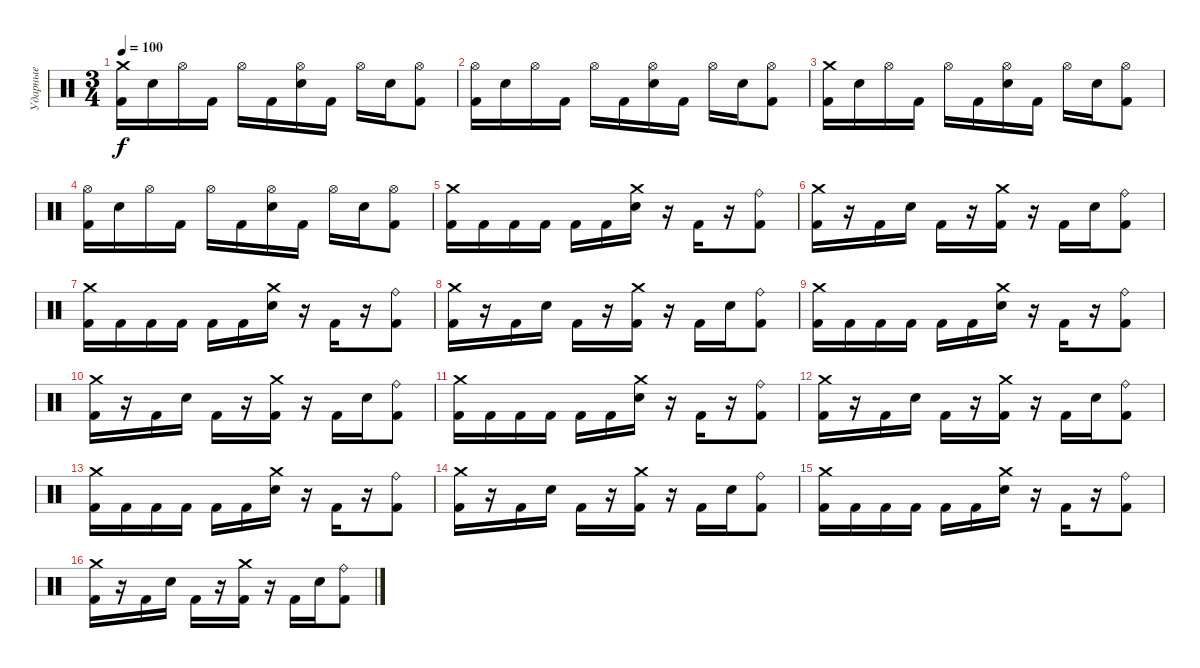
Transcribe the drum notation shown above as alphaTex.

\track ("Ударные" "Ударные") {instrument percussion}
\staff {score}
\articulation defaults
\ts (3 4)
\tempo 100
\clef neutral
\ks c
("Crash medium (hit)" "Kick (hit) 2").16{dy f} "Electric Snare (hit)".16 "Hi-Hat (open)".16 "Kick (hit) 2".16 "Hi-Hat (open)".16 "Kick (hit) 2".16 ("Hi-Hat (open)" "Electric Snare (hit)").16 "Kick (hit) 2".16 "Hi-Hat (open)".16 "Electric Snare (hit)".16 ("Hi-Hat (open)" "Kick (hit) 2").8 |
("Hi-Hat (open)" "Kick (hit) 2").16 "Electric Snare (hit)".16 "Hi-Hat (open)".16 "Kick (hit) 2".16 "Hi-Hat (open)".16 "Kick (hit) 2".16 ("Hi-Hat (open)" "Electric Snare (hit)").16 "Kick (hit) 2".16 "Hi-Hat (open)".16 "Electric Snare (hit)".16 ("Hi-Hat (open)" "Kick (hit) 2").8 |
("Crash medium (hit)" "Kick (hit) 2").16 "Electric Snare (hit)".16 "Hi-Hat (open)".16 "Kick (hit) 2".16 "Hi-Hat (open)".16 "Kick (hit) 2".16 ("Hi-Hat (open)" "Electric Snare (hit)").16 "Kick (hit) 2".16 "Hi-Hat (open)".16 "Electric Snare (hit)".16 ("Hi-Hat (open)" "Kick (hit) 2").8 |
("Hi-Hat (open)" "Kick (hit) 2").16 "Electric Snare (hit)".16 "Hi-Hat (open)".16 "Kick (hit) 2".16 "Hi-Hat (open)".16 "Kick (hit) 2".16 ("Hi-Hat (open)" "Electric Snare (hit)").16 "Kick (hit) 2".16 "Hi-Hat (open)".16 "Electric Snare (hit)".16 ("Hi-Hat (open)" "Kick (hit) 2").8 |
("Crash medium (hit)" "Kick (hit) 2").16 "Kick (hit) 2".16 "Kick (hit) 2".16 "Kick (hit) 2".16 "Kick (hit) 2".16 "Kick (hit) 2".16 ("Crash medium (hit)" "Electric Snare (hit)").16 r.16 "Kick (hit) 2".16 r.16 ("Ride (bell)" "Kick (hit) 2").8 |
("Crash medium (hit)" "Kick (hit) 2").16 r.16 "Kick (hit) 2".16 "Electric Snare (hit)".16 "Kick (hit) 2".16 r.16 ("Crash medium (hit)" "Kick (hit) 2").16 r.16 "Kick (hit) 2".16 "Electric Snare (hit)".16 ("Ride (bell)" "Kick (hit) 2").8 |
("Crash medium (hit)" "Kick (hit) 2").16 "Kick (hit) 2".16 "Kick (hit) 2".16 "Kick (hit) 2".16 "Kick (hit) 2".16 "Kick (hit) 2".16 ("Crash medium (hit)" "Electric Snare (hit)").16 r.16 "Kick (hit) 2".16 r.16 ("Ride (bell)" "Kick (hit) 2").8 |
("Crash medium (hit)" "Kick (hit) 2").16 r.16 "Kick (hit) 2".16 "Electric Snare (hit)".16 "Kick (hit) 2".16 r.16 ("Crash medium (hit)" "Kick (hit) 2").16 r.16 "Kick (hit) 2".16 "Electric Snare (hit)".16 ("Ride (bell)" "Kick (hit) 2").8 |
("Crash medium (hit)" "Kick (hit) 2").16 "Kick (hit) 2".16 "Kick (hit) 2".16 "Kick (hit) 2".16 "Kick (hit) 2".16 "Kick (hit) 2".16 ("Crash medium (hit)" "Electric Snare (hit)").16 r.16 "Kick (hit) 2".16 r.16 ("Ride (bell)" "Kick (hit) 2").8 |
("Crash medium (hit)" "Kick (hit) 2").16 r.16 "Kick (hit) 2".16 "Electric Snare (hit)".16 "Kick (hit) 2".16 r.16 ("Crash medium (hit)" "Kick (hit) 2").16 r.16 "Kick (hit) 2".16 "Electric Snare (hit)".16 ("Ride (bell)" "Kick (hit) 2").8 |
("Crash medium (hit)" "Kick (hit) 2").16 "Kick (hit) 2".16 "Kick (hit) 2".16 "Kick (hit) 2".16 "Kick (hit) 2".16 "Kick (hit) 2".16 ("Crash medium (hit)" "Electric Snare (hit)").16 r.16 "Kick (hit) 2".16 r.16 ("Ride (bell)" "Kick (hit) 2").8 |
("Crash medium (hit)" "Kick (hit) 2").16 r.16 "Kick (hit) 2".16 "Electric Snare (hit)".16 "Kick (hit) 2".16 r.16 ("Crash medium (hit)" "Kick (hit) 2").16 r.16 "Kick (hit) 2".16 "Electric Snare (hit)".16 ("Ride (bell)" "Kick (hit) 2").8 |
("Crash medium (hit)" "Kick (hit) 2").16 "Kick (hit) 2".16 "Kick (hit) 2".16 "Kick (hit) 2".16 "Kick (hit) 2".16 "Kick (hit) 2".16 ("Crash medium (hit)" "Electric Snare (hit)").16 r.16 "Kick (hit) 2".16 r.16 ("Ride (bell)" "Kick (hit) 2").8 |
("Crash medium (hit)" "Kick (hit) 2").16 r.16 "Kick (hit) 2".16 "Electric Snare (hit)".16 "Kick (hit) 2".16 r.16 ("Crash medium (hit)" "Kick (hit) 2").16 r.16 "Kick (hit) 2".16 "Electric Snare (hit)".16 ("Ride (bell)" "Kick (hit) 2").8 |
("Crash medium (hit)" "Kick (hit) 2").16 "Kick (hit) 2".16 "Kick (hit) 2".16 "Kick (hit) 2".16 "Kick (hit) 2".16 "Kick (hit) 2".16 ("Crash medium (hit)" "Electric Snare (hit)").16 r.16 "Kick (hit) 2".16 r.16 ("Ride (bell)" "Kick (hit) 2").8 |
("Crash medium (hit)" "Kick (hit) 2").16 r.16 "Kick (hit) 2".16 "Electric Snare (hit)".16 "Kick (hit) 2".16 r.16 ("Crash medium (hit)" "Kick (hit) 2").16 r.16 "Kick (hit) 2".16 "Electric Snare (hit)".16 ("Ride (bell)" "Kick (hit) 2").8
